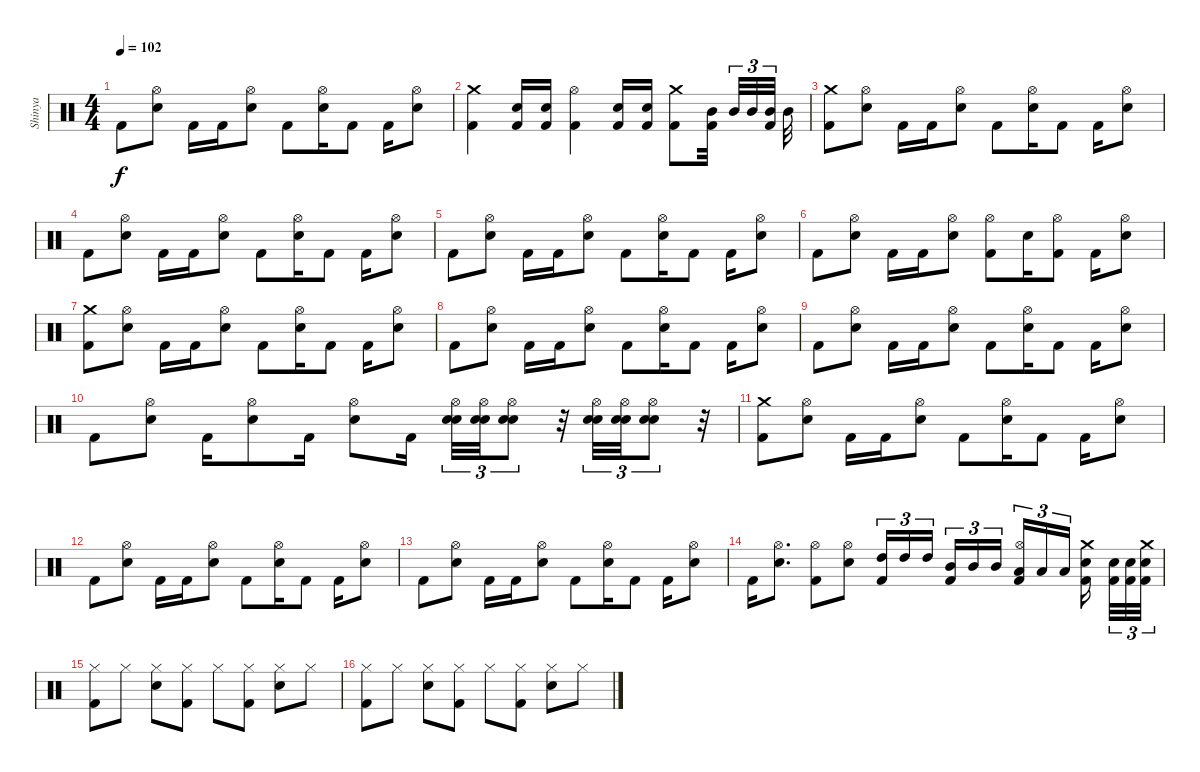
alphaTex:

\track ("Shinya" "Shinya") {instrument percussion}
\staff {score}
\articulation defaults
\ts (4 4)
\tempo 102
\clef neutral
\ks c "Kick (hit) 2".8{dy f}
("Hi-Hat (open)" "Electric Snare (hit)").8 "Kick (hit) 2".16 "Kick (hit) 2".16 ("Hi-Hat (open)" "Electric Snare (hit)").8 "Kick (hit) 2".8 ("Hi-Hat (open)" "Electric Snare (hit)").16 "Kick (hit) 2".8 "Kick (hit) 2".16 ("Hi-Hat (open)" "Electric Snare (hit)").8 |
("Crash medium (hit)" "Kick (hit) 2").4 ("Electric Snare (hit)" "Kick (hit) 2").16 ("Electric Snare (hit)" "Kick (hit) 2").16 ("Hi-Hat (open)" "Kick (hit) 2").4 ("Electric Snare (hit)" "Kick (hit) 2").16 ("Electric Snare (hit)" "Kick (hit) 2").16 ("Crash medium (hit)" "Kick (hit) 2").8 ("Mid Tom (hit)" "Kick (hit) 2").32{beam splitsecondary} "Mid Tom (hit)".32{tu (3 2)} "Mid Tom (hit)".32{tu (3 2)} ("Mid Tom (hit)" "Kick (hit) 2").32{tu (3 2) beam splitsecondary} "Mid Tom (hit)".32 |
("Crash medium (hit)" "Kick (hit) 2").8 ("Hi-Hat (open)" "Electric Snare (hit)").8 "Kick (hit) 2".16 "Kick (hit) 2".16 ("Hi-Hat (open)" "Electric Snare (hit)").8 "Kick (hit) 2".8 ("Hi-Hat (open)" "Electric Snare (hit)").16 "Kick (hit) 2".8 "Kick (hit) 2".16 ("Hi-Hat (open)" "Electric Snare (hit)").8 |
"Kick (hit) 2".8 ("Hi-Hat (open)" "Electric Snare (hit)").8 "Kick (hit) 2".16 "Kick (hit) 2".16 ("Hi-Hat (open)" "Electric Snare (hit)").8 "Kick (hit) 2".8 ("Hi-Hat (open)" "Electric Snare (hit)").16 "Kick (hit) 2".8 "Kick (hit) 2".16 ("Hi-Hat (open)" "Electric Snare (hit)").8 |
"Kick (hit) 2".8 ("Hi-Hat (open)" "Electric Snare (hit)").8 "Kick (hit) 2".16 "Kick (hit) 2".16 ("Hi-Hat (open)" "Electric Snare (hit)").8 "Kick (hit) 2".8 ("Hi-Hat (open)" "Electric Snare (hit)").16 "Kick (hit) 2".8 "Kick (hit) 2".16 ("Hi-Hat (open)" "Electric Snare (hit)").8 |
"Kick (hit) 2".8 ("Hi-Hat (open)" "Electric Snare (hit)").8 "Kick (hit) 2".16 "Kick (hit) 2".16 ("Hi-Hat (open)" "Electric Snare (hit)").8 ("Hi-Hat (open)" "Kick (hit) 2").8 "Electric Snare (hit)".16 ("Hi-Hat (open)" "Kick (hit) 2").8 "Kick (hit) 2".16 ("Hi-Hat (open)" "Electric Snare (hit)").8 |
("Crash medium (hit)" "Kick (hit) 2").8 ("Hi-Hat (open)" "Electric Snare (hit)").8 "Kick (hit) 2".16 "Kick (hit) 2".16 ("Hi-Hat (open)" "Electric Snare (hit)").8 "Kick (hit) 2".8 ("Hi-Hat (open)" "Electric Snare (hit)").16 "Kick (hit) 2".8 "Kick (hit) 2".16 ("Hi-Hat (open)" "Electric Snare (hit)").8 |
"Kick (hit) 2".8 ("Hi-Hat (open)" "Electric Snare (hit)").8 "Kick (hit) 2".16 "Kick (hit) 2".16 ("Hi-Hat (open)" "Electric Snare (hit)").8 "Kick (hit) 2".8 ("Hi-Hat (open)" "Electric Snare (hit)").16 "Kick (hit) 2".8 "Kick (hit) 2".16 ("Hi-Hat (open)" "Electric Snare (hit)").8 |
"Kick (hit) 2".8 ("Hi-Hat (open)" "Electric Snare (hit)").8 "Kick (hit) 2".16 "Kick (hit) 2".16 ("Hi-Hat (open)" "Electric Snare (hit)").8 "Kick (hit) 2".8 ("Hi-Hat (open)" "Electric Snare (hit)").16 "Kick (hit) 2".8 "Kick (hit) 2".16 ("Hi-Hat (open)" "Electric Snare (hit)").8 |
"Kick (hit) 2".8 ("Hi-Hat (open)" "Electric Snare (hit)").8 "Kick (hit) 2".16 ("Hi-Hat (open)" "Electric Snare (hit)").8 "Kick (hit) 2".16 ("Hi-Hat (open)" "Electric Snare (hit)").8 "Kick (hit) 2".16{beam splitsecondary} ("Hi-Hat (open)" "Electric Snare (hit)" "Snare (hit) 2").32{tu (3 2)} ("Hi-Hat (open)" "Electric Snare (hit)" "Snare (hit) 2").32{tu (3 2)} ("Hi-Hat (open)" "Electric Snare (hit)" "Snare (hit) 2").8{tu (3 2)} r.32 ("Hi-Hat (open)" "Electric Snare (hit)" "Snare (hit) 2").32{tu (3 2)} ("Hi-Hat (open)" "Electric Snare (hit)" "Snare (hit) 2").32{tu (3 2)} ("Hi-Hat (open)" "Electric Snare (hit)" "Snare (hit) 2").8{tu (3 2)} r.32 |
("Crash medium (hit)" "Kick (hit) 2").8 ("Hi-Hat (open)" "Electric Snare (hit)").8 "Kick (hit) 2".16 "Kick (hit) 2".16 ("Hi-Hat (open)" "Electric Snare (hit)").8 "Kick (hit) 2".8 ("Hi-Hat (open)" "Electric Snare (hit)").16 "Kick (hit) 2".8 "Kick (hit) 2".16 ("Hi-Hat (open)" "Electric Snare (hit)").8 |
"Kick (hit) 2".8 ("Hi-Hat (open)" "Electric Snare (hit)").8 "Kick (hit) 2".16 "Kick (hit) 2".16 ("Hi-Hat (open)" "Electric Snare (hit)").8 "Kick (hit) 2".8 ("Hi-Hat (open)" "Electric Snare (hit)").16 "Kick (hit) 2".8 "Kick (hit) 2".16 ("Hi-Hat (open)" "Electric Snare (hit)").8 |
"Kick (hit) 2".8 ("Hi-Hat (open)" "Electric Snare (hit)").8 "Kick (hit) 2".16 "Kick (hit) 2".16 ("Hi-Hat (open)" "Electric Snare (hit)").8 "Kick (hit) 2".8 ("Hi-Hat (open)" "Electric Snare (hit)").16 "Kick (hit) 2".8 "Kick (hit) 2".16 ("Hi-Hat (open)" "Electric Snare (hit)").8 |
"Kick (hit) 2".16 ("Hi-Hat (open)" "Electric Snare (hit)").8{d} ("Hi-Hat (open)" "Kick (hit) 2").8 ("Hi-Hat (open)" "Electric Snare (hit)").8 ("High Tom (hit)" "Kick (hit) 2").16{tu (3 2)} "High Tom (hit)".16{tu (3 2)} "High Tom (hit)".16{tu (3 2) beam splitsecondary} ("Mid Tom (hit)" "Kick (hit) 2").16{tu (3 2)} "Mid Tom (hit)".16{tu (3 2)} "Mid Tom (hit)".16{tu (3 2)} ("Hi-Hat (open)" "Low Tom (hit)" "Kick (hit) 2").16{tu (3 2)} "Low Tom (hit)".16{tu (3 2)} "Low Tom (hit)".16{tu (3 2) beam splitsecondary} ("Crash medium (hit)" "Electric Snare (hit)" "Kick (hit) 2").16{beam splitsecondary} ("Electric Snare (hit)" "Kick (hit) 2").32{tu (3 2)} ("Electric Snare (hit)" "Kick (hit) 2").32{tu (3 2)} ("Crash medium (hit)" "Electric Snare (hit)" "Kick (hit) 2").32{tu (3 2)} |
("Hi-Hat (closed)" "Kick (hit) 2").8 "Hi-Hat (closed)".8 ("Hi-Hat (closed)" "Electric Snare (hit)").8 ("Hi-Hat (closed)" "Kick (hit) 2").8 "Hi-Hat (closed)".8 ("Hi-Hat (closed)" "Kick (hit) 2").8 ("Hi-Hat (closed)" "Electric Snare (hit)").8 "Hi-Hat (closed)".8 |
("Hi-Hat (closed)" "Kick (hit) 2").8 "Hi-Hat (closed)".8 ("Hi-Hat (closed)" "Electric Snare (hit)").8 ("Hi-Hat (closed)" "Kick (hit) 2").8 "Hi-Hat (closed)".8 ("Hi-Hat (closed)" "Kick (hit) 2").8 ("Hi-Hat (closed)" "Electric Snare (hit)").8 "Hi-Hat (closed)".8
